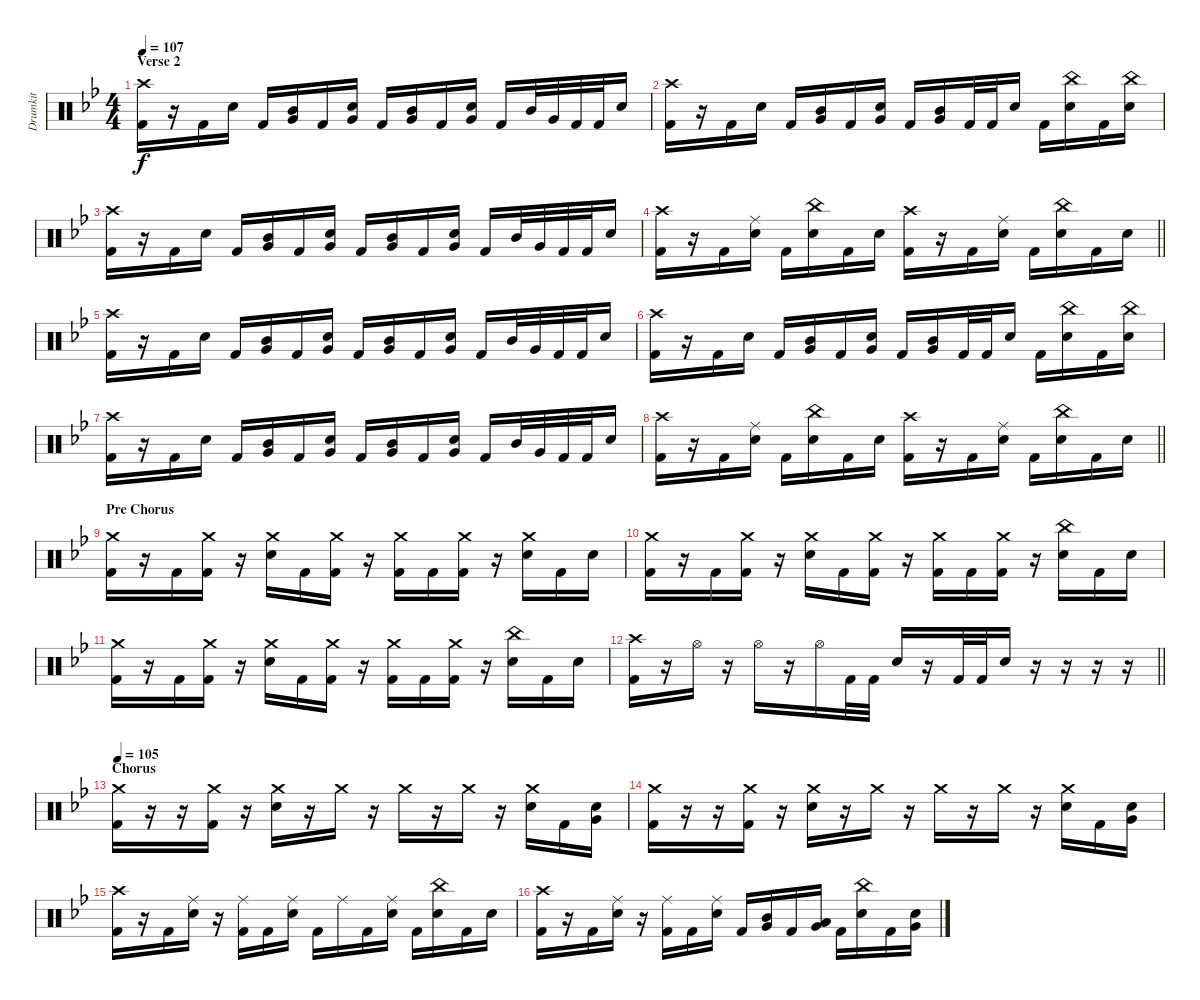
\track ("Drumkit" "Drumkit") {instrument percussion}
\staff {score}
\articulation defaults
\ts (4 4)
\section ("" "Verse 2")
\tempo 107
\clef neutral
\ks bb
("Crash high (hit)" "Kick (hit) 2").16{dy f} r.16 "Kick (hit) 2".16 "Snare (hit) 2".16 "Kick (hit) 2".16 ("Mid Tom (hit)" "Very Low Tom (hit)").16 "Kick (hit) 2".16 ("Snare (hit) 2" "Very Low Tom (hit)").16 "Kick (hit) 2".16 ("Mid Tom (hit)" "Very Low Tom (hit)").16 "Kick (hit) 2".16 ("Snare (hit) 2" "Very Low Tom (hit)").16 "Kick (hit) 2".16 "Mid Tom (hit)".32 "Very Low Tom (hit)".32 "Kick (hit) 2".32 "Kick (hit) 2".32 "Snare (hit) 2".16 |
("Crash high (hit)" "Kick (hit) 2").16 r.16 "Kick (hit) 2".16 "Snare (hit) 2".16 "Kick (hit) 2".16 ("Mid Tom (hit)" "Very Low Tom (hit)").16 "Kick (hit) 2".16 ("Snare (hit) 2" "Very Low Tom (hit)").16 "Kick (hit) 2".16 ("Mid Tom (hit)" "Very Low Tom (hit)").16 "Kick (hit) 2".32 "Kick (hit) 2".32 "Snare (hit) 2".16 "Kick (hit) 2".16 ("China (hit)" "Snare (hit) 2").16 "Kick (hit) 2".16 ("China (hit)" "Snare (hit) 2").16 |
("Crash high (hit)" "Kick (hit) 2").16 r.16 "Kick (hit) 2".16 "Snare (hit) 2".16 "Kick (hit) 2".16 ("Mid Tom (hit)" "Very Low Tom (hit)").16 "Kick (hit) 2".16 ("Snare (hit) 2" "Very Low Tom (hit)").16 "Kick (hit) 2".16 ("Mid Tom (hit)" "Very Low Tom (hit)").16 "Kick (hit) 2".16 ("Snare (hit) 2" "Very Low Tom (hit)").16 "Kick (hit) 2".16 "Mid Tom (hit)".32 "Very Low Tom (hit)".32 "Kick (hit) 2".32 "Kick (hit) 2".32 "Snare (hit) 2".16 |
\barLineRight lightlight
("Crash high (hit)" "Kick (hit) 2").16 r.16 "Kick (hit) 2".16 ("Ride (middle)" "Snare (hit) 2").16 "Kick (hit) 2".16 ("China (hit)" "Snare (hit) 2").16 "Kick (hit) 2".16 "Snare (hit) 2".16 ("Crash high (hit)" "Kick (hit) 2").16 r.16 "Kick (hit) 2".16 ("Ride (middle)" "Snare (hit) 2").16 "Kick (hit) 2".16 ("China (hit)" "Snare (hit) 2").16 "Kick (hit) 2".16 "Snare (hit) 2".16 |
("Crash high (hit)" "Kick (hit) 2").16 r.16 "Kick (hit) 2".16 "Snare (hit) 2".16 "Kick (hit) 2".16 ("Mid Tom (hit)" "Very Low Tom (hit)").16 "Kick (hit) 2".16 ("Snare (hit) 2" "Very Low Tom (hit)").16 "Kick (hit) 2".16 ("Mid Tom (hit)" "Very Low Tom (hit)").16 "Kick (hit) 2".16 ("Snare (hit) 2" "Very Low Tom (hit)").16 "Kick (hit) 2".16 "Mid Tom (hit)".32 "Very Low Tom (hit)".32 "Kick (hit) 2".32 "Kick (hit) 2".32 "Snare (hit) 2".16 |
("Crash high (hit)" "Kick (hit) 2").16 r.16 "Kick (hit) 2".16 "Snare (hit) 2".16 "Kick (hit) 2".16 ("Mid Tom (hit)" "Very Low Tom (hit)").16 "Kick (hit) 2".16 ("Snare (hit) 2" "Very Low Tom (hit)").16 "Kick (hit) 2".16 ("Mid Tom (hit)" "Very Low Tom (hit)").16 "Kick (hit) 2".32 "Kick (hit) 2".32 "Snare (hit) 2".16 "Kick (hit) 2".16 ("China (hit)" "Snare (hit) 2").16 "Kick (hit) 2".16 ("China (hit)" "Snare (hit) 2").16 |
("Crash high (hit)" "Kick (hit) 2").16 r.16 "Kick (hit) 2".16 "Snare (hit) 2".16 "Kick (hit) 2".16 ("Mid Tom (hit)" "Very Low Tom (hit)").16 "Kick (hit) 2".16 ("Snare (hit) 2" "Very Low Tom (hit)").16 "Kick (hit) 2".16 ("Mid Tom (hit)" "Very Low Tom (hit)").16 "Kick (hit) 2".16 ("Snare (hit) 2" "Very Low Tom (hit)").16 "Kick (hit) 2".16 "Mid Tom (hit)".32 "Very Low Tom (hit)".32 "Kick (hit) 2".32 "Kick (hit) 2".32 "Snare (hit) 2".16 |
\barLineRight lightlight
("Crash high (hit)" "Kick (hit) 2").16 r.16 "Kick (hit) 2".16 ("Ride (middle)" "Snare (hit) 2").16 "Kick (hit) 2".16 ("China (hit)" "Snare (hit) 2").16 "Kick (hit) 2".16 "Snare (hit) 2".16 ("Crash high (hit)" "Kick (hit) 2").16 r.16 "Kick (hit) 2".16 ("Ride (middle)" "Snare (hit) 2").16 "Kick (hit) 2".16 ("China (hit)" "Snare (hit) 2").16 "Kick (hit) 2".16 "Snare (hit) 2".16 |
\section ("" "Pre Chorus")
("Crash medium (hit)" "Kick (hit) 2").16 r.16 "Kick (hit) 2".16 ("Crash medium (hit)" "Kick (hit) 2").16 r.16 ("Crash medium (hit)" "Snare (hit) 2").16 "Kick (hit) 2".16 ("Crash medium (hit)" "Kick (hit) 2").16 r.16 ("Crash medium (hit)" "Kick (hit) 2").16 "Kick (hit) 2".16 ("Crash medium (hit)" "Kick (hit) 2").16 r.16 ("Crash medium (hit)" "Snare (hit) 2").16 "Kick (hit) 2".16 "Snare (hit) 2".16 |
("Crash medium (hit)" "Kick (hit) 2").16 r.16 "Kick (hit) 2".16 ("Crash medium (hit)" "Kick (hit) 2").16 r.16 ("Crash medium (hit)" "Snare (hit) 2").16 "Kick (hit) 2".16 ("Crash medium (hit)" "Kick (hit) 2").16 r.16 ("Crash medium (hit)" "Kick (hit) 2").16 "Kick (hit) 2".16 ("Crash medium (hit)" "Kick (hit) 2").16 r.16 ("China (hit)" "Snare (hit) 2").16 "Kick (hit) 2".16 "Snare (hit) 2".16 |
("Crash medium (hit)" "Kick (hit) 2").16 r.16 "Kick (hit) 2".16 ("Crash medium (hit)" "Kick (hit) 2").16 r.16 ("Crash medium (hit)" "Snare (hit) 2").16 "Kick (hit) 2".16 ("Crash medium (hit)" "Kick (hit) 2").16 r.16 ("Crash medium (hit)" "Kick (hit) 2").16 "Kick (hit) 2".16 ("Crash medium (hit)" "Kick (hit) 2").16 r.16 ("China (hit)" "Snare (hit) 2").16 "Kick (hit) 2".16 "Snare (hit) 2".16 |
\barLineRight lightlight
("Crash high (hit)" "Kick (hit) 2").16 r.16 "Hi-Hat (open)".16 r.16 "Hi-Hat (open)".16 r.16 "Hi-Hat (open)".16 "Kick (hit) 2".32 "Kick (hit) 2".32 "Snare (hit) 2".16 r.16 "Kick (hit) 2".32 "Kick (hit) 2".32 "Snare (hit) 2".16 r.16 r.16 r.16 r.16 |
\section ("" "Chorus")
\tempo 105
("Crash medium (hit)" "Kick (hit) 2").16 r.16 r.16 ("Crash medium (hit)" "Kick (hit) 2").16 r.16 ("Crash medium (hit)" "Snare (hit) 2").16 r.16 "Crash medium (hit)".16 r.16 "Crash medium (hit)".16 r.16 "Crash medium (hit)".16 r.16 ("Crash medium (hit)" "Snare (hit) 2").16 "Kick (hit) 2".16 ("Snare (hit) 2" "Very Low Tom (hit)").16 |
("Crash medium (hit)" "Kick (hit) 2").16 r.16 r.16 ("Crash medium (hit)" "Kick (hit) 2").16 r.16 ("Crash medium (hit)" "Snare (hit) 2").16 r.16 "Crash medium (hit)".16 r.16 "Crash medium (hit)".16 r.16 "Crash medium (hit)".16 r.16 ("Crash medium (hit)" "Snare (hit) 2").16 "Kick (hit) 2".16 ("Snare (hit) 2" "Very Low Tom (hit)").16 |
("Crash high (hit)" "Kick (hit) 2").16 r.16 "Kick (hit) 2".16 ("Ride (middle)" "Snare (hit) 2").16 r.16 ("Ride (middle)" "Kick (hit) 2").16 "Kick (hit) 2".16 ("Ride (middle)" "Snare (hit) 2").16 "Kick (hit) 2".16 "Ride (middle)".16 "Kick (hit) 2".16 ("Ride (middle)" "Snare (hit) 2").16 "Kick (hit) 2".16 ("China (hit)" "Snare (hit) 2").16 "Kick (hit) 2".16 "Snare (hit) 2".16 |
("Crash high (hit)" "Kick (hit) 2").16 r.16 "Kick (hit) 2".16 ("Ride (middle)" "Snare (hit) 2").16 r.16 ("Ride (middle)" "Kick (hit) 2").16 "Kick (hit) 2".16 ("Ride (middle)" "Snare (hit) 2").16 "Kick (hit) 2".16 ("Mid Tom (hit)" "Very Low Tom (hit)").16 "Kick (hit) 2".16 ("Low Tom (hit)" "Very Low Tom (hit)").16 "Kick (hit) 2".16 ("China (hit)" "Snare (hit) 2").16 "Kick (hit) 2".16 ("Snare (hit) 2" "Very Low Tom (hit)").16
